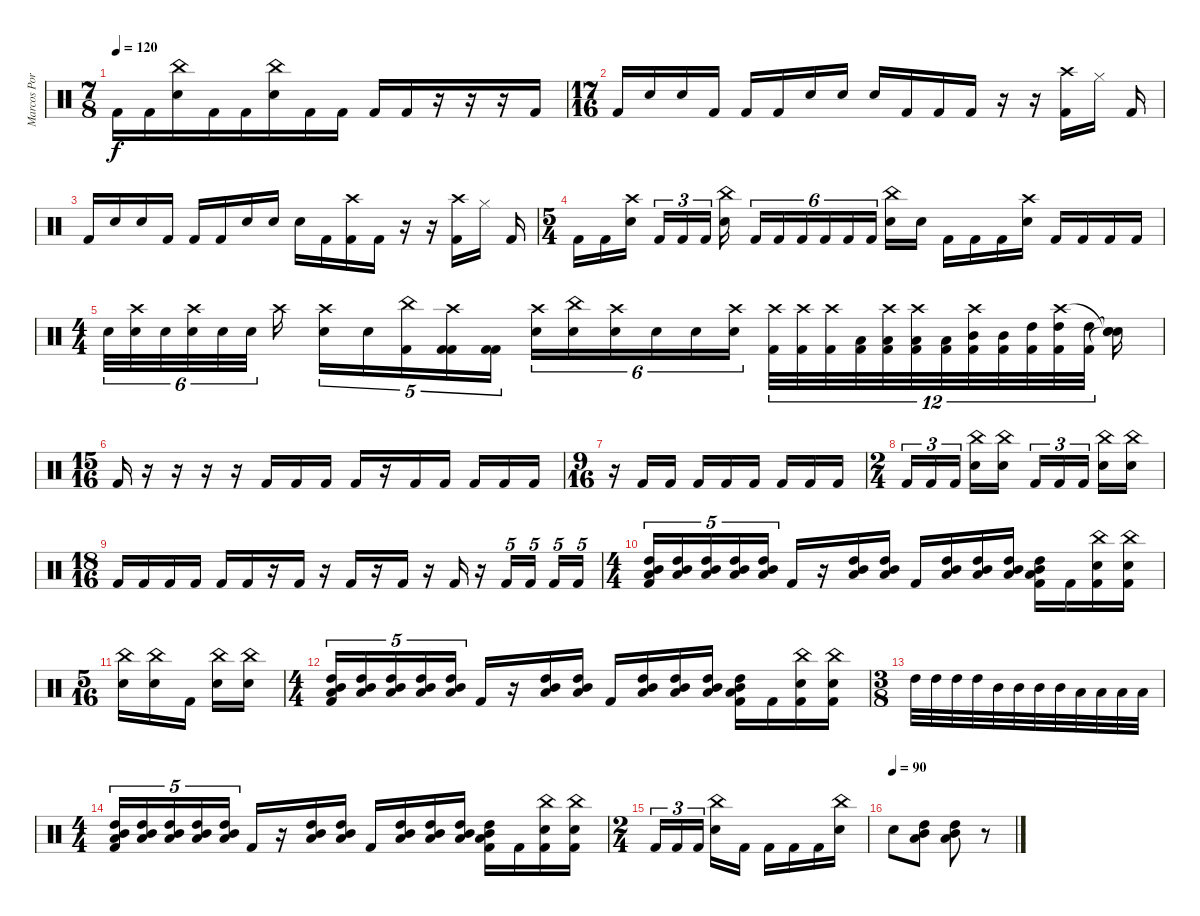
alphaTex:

\track ("Marcos Portinol" "Marcos Por") {instrument percussion}
\staff {score}
\articulation defaults
\ts (7 8)
\tempo 120
\clef neutral
\ks c "Kick (hit) 2".16{dy f} "Kick (hit) 2".16
("Electric Snare (hit)" "China (hit)").16 "Kick (hit) 2".16 "Kick (hit) 2".16 ("Electric Snare (hit)" "China (hit)").16 "Kick (hit) 2".16 "Kick (hit) 2".16 "Kick (hit) 2".16 "Kick (hit) 2".16 r.16 r.16 r.16 "Kick (hit) 2".16 |
\ts (17 16)
"Kick (hit) 2".16 "Electric Snare (hit)".16 "Electric Snare (hit)".16 "Kick (hit) 2".16 "Kick (hit) 2".16 "Kick (hit) 2".16 "Electric Snare (hit)".16 "Electric Snare (hit)".16 "Electric Snare (hit)".16 "Kick (hit) 2".16 "Kick (hit) 2".16 "Kick (hit) 2".16 r.16 r.16 ("Kick (hit) 2" "Crash high (hit)").16 "Hi-Hat (closed)".16 "Kick (hit) 2".16 |
"Kick (hit) 2".16 "Electric Snare (hit)".16 "Electric Snare (hit)".16 "Kick (hit) 2".16 "Kick (hit) 2".16 "Kick (hit) 2".16 "Electric Snare (hit)".16 "Electric Snare (hit)".16 "Electric Snare (hit)".16 "Kick (hit) 2".16 ("Kick (hit) 2" "Crash high (hit)").16 "Kick (hit) 2".16 r.16 r.16 ("Kick (hit) 2" "Crash high (hit)").16 "Hi-Hat (closed)".16 "Kick (hit) 2".16 |
\ts (5 4)
"Kick (hit) 2".16 "Kick (hit) 2".16 ("Electric Snare (hit)" "Crash high (hit)").16 "Kick (hit) 2".16{tu (3 2)} "Kick (hit) 2".16{tu (3 2)} "Kick (hit) 2".16{tu (3 2)} ("Electric Snare (hit)" "China (hit)").16 "Kick (hit) 2".16{tu (6 4)} "Kick (hit) 2".16{tu (6 4)} "Kick (hit) 2".16{tu (6 4)} "Kick (hit) 2".16{tu (6 4)} "Kick (hit) 2".16{tu (6 4)} "Kick (hit) 2".16{tu (6 4)} ("Electric Snare (hit)" "China (hit)").16 "Electric Snare (hit)".16 "Kick (hit) 2".16 "Kick (hit) 2".16 "Kick (hit) 2".16 ("Electric Snare (hit)" "Crash high (hit)").16 "Kick (hit) 2".16 "Kick (hit) 2".16 "Kick (hit) 2".16 "Kick (hit) 2".16 |
\ts (4 4)
"Electric Snare (hit)".32{tu (6 4)} ("Electric Snare (hit)" "Crash high (hit)").32{tu (6 4)} "Electric Snare (hit)".32{tu (6 4)} ("Electric Snare (hit)" "Crash high (hit)").32{tu (6 4)} "Electric Snare (hit)".32{tu (6 4)} "Electric Snare (hit)".32{tu (6 4)} "Crash high (hit)".16 ("Electric Snare (hit)" "Crash high (hit)").16{tu (5 4)} "Electric Snare (hit)".16{tu (5 4)} ("Kick (hit) 2" "China (hit)").16{tu (5 4)} ("Kick (hit) 2" "Kick (hit) 2" "Crash high (hit)").16{tu (5 4)} ("Kick (hit) 2" "Kick (hit) 2").16{tu (5 4)} ("Electric Snare (hit)" "Crash high (hit)").16{tu (6 4)} ("Electric Snare (hit)" "China (hit)").16{tu (6 4)} ("Electric Snare (hit)" "Crash high (hit)").16{tu (6 4)} "Electric Snare (hit)".16{tu (6 4)} "Electric Snare (hit)".16{tu (6 4)} ("Electric Snare (hit)" "Crash high (hit)").16{tu (6 4)} ("Kick (hit) 2" "Crash high (hit)").32{tu (12 8)} ("Kick (hit) 2" "Crash high (hit)").32{tu (12 8)} ("Kick (hit) 2" "Crash high (hit)").32{tu (12 8)} ("Kick (hit) 2" "Low Tom (hit)").32{tu (12 8)} ("Kick (hit) 2" "Low Tom (hit)" "Crash high (hit)").32{tu (12 8)} ("Kick (hit) 2" "Low Tom (hit)" "Crash high (hit)").32{tu (12 8)} ("Kick (hit) 2" "Low Tom (hit)").32{tu (12 8)} ("Kick (hit) 2" "Mid Tom (hit)" "Crash high (hit)").32{tu (12 8)} ("Kick (hit) 2" "Mid Tom (hit)").32{tu (12 8)} ("Kick (hit) 2" "High Tom (hit)").32{tu (12 8)} ("Kick (hit) 2" "High Tom (hit)" "Crash high (hit)").32{tu (12 8)} ("Kick (hit) 2" "High Tom (hit)").32{tu (12 8)} ("Snare (hit)"{t} "Snare (hit)"{t} "Snare (hit)"{t}).16 |
\ts (15 16)
"Kick (hit) 2".16 r.16 r.16 r.16 r.16 "Kick (hit) 2".16 "Kick (hit) 2".16 "Kick (hit) 2".16 "Kick (hit) 2".16 r.16 "Kick (hit) 2".16 "Kick (hit) 2".16 "Kick (hit) 2".16 "Kick (hit) 2".16 "Kick (hit) 2".16 |
\ts (9 16)
r.16 "Kick (hit) 2".16 "Kick (hit) 2".16 "Kick (hit) 2".16 "Kick (hit) 2".16 "Kick (hit) 2".16 "Kick (hit) 2".16 "Kick (hit) 2".16 "Kick (hit) 2".16 |
\ts (2 4)
"Kick (hit) 2".16{tu (3 2)} "Kick (hit) 2".16{tu (3 2)} "Kick (hit) 2".16{tu (3 2)} ("Electric Snare (hit)" "China (hit)").16 ("Electric Snare (hit)" "China (hit)").16 "Kick (hit) 2".16{tu (3 2)} "Kick (hit) 2".16{tu (3 2)} "Kick (hit) 2".16{tu (3 2)} ("Electric Snare (hit)" "China (hit)").16 ("Electric Snare (hit)" "China (hit)").16 |
\ts (18 16)
"Kick (hit) 2".16 "Kick (hit) 2".16 "Kick (hit) 2".16 "Kick (hit) 2".16 "Kick (hit) 2".16 "Kick (hit) 2".16 r.16 "Kick (hit) 2".16 r.16 "Kick (hit) 2".16 r.16 "Kick (hit) 2".16 r.16 "Kick (hit) 2".16 r.16 "Kick (hit) 2".16{tu (5 4)} "Kick (hit) 2".16{tu (5 4)} "Kick (hit) 2".16{tu (5 4)} "Kick (hit) 2".16{tu (5 4)} |
\ts (4 4)
("Kick (hit) 2" "High Tom (hit)" "Low Tom (hit)" "Mid Tom (hit)").16{tu (5 4)} ("High Tom (hit)" "Low Tom (hit)" "Mid Tom (hit)").16{tu (5 4)} ("High Tom (hit)" "Low Tom (hit)" "Mid Tom (hit)").16{tu (5 4)} ("High Tom (hit)" "Low Tom (hit)" "Mid Tom (hit)").16{tu (5 4)} ("High Tom (hit)" "Low Tom (hit)" "Mid Tom (hit)").16{tu (5 4)} "Kick (hit) 2".16 r.16 ("High Tom (hit)" "Low Tom (hit)" "Mid Tom (hit)").16 ("High Tom (hit)" "Low Tom (hit)" "Mid Tom (hit)").16 "Kick (hit) 2".16 ("High Tom (hit)" "Low Tom (hit)" "Mid Tom (hit)").16 ("High Tom (hit)" "Low Tom (hit)" "Mid Tom (hit)").16 ("High Tom (hit)" "Low Tom (hit)" "Mid Tom (hit)").16 ("Kick (hit) 2" "High Tom (hit)" "Low Tom (hit)" "Mid Tom (hit)").16 "Kick (hit) 2".16 ("Kick (hit) 2" "Electric Snare (hit)" "China (hit)").16 ("Kick (hit) 2" "Electric Snare (hit)" "China (hit)").16 |
\ts (5 16)
("Electric Snare (hit)" "China (hit)").16 ("Electric Snare (hit)" "China (hit)").16 "Kick (hit) 2".16 ("Electric Snare (hit)" "China (hit)").16 ("Electric Snare (hit)" "China (hit)").16 |
\ts (4 4)
("Kick (hit) 2" "High Tom (hit)" "Low Tom (hit)" "Mid Tom (hit)").16{tu (5 4)} ("High Tom (hit)" "Low Tom (hit)" "Mid Tom (hit)").16{tu (5 4)} ("High Tom (hit)" "Low Tom (hit)" "Mid Tom (hit)").16{tu (5 4)} ("High Tom (hit)" "Low Tom (hit)" "Mid Tom (hit)").16{tu (5 4)} ("High Tom (hit)" "Low Tom (hit)" "Mid Tom (hit)").16{tu (5 4)} "Kick (hit) 2".16 r.16 ("High Tom (hit)" "Low Tom (hit)" "Mid Tom (hit)").16 ("High Tom (hit)" "Low Tom (hit)" "Mid Tom (hit)").16 "Kick (hit) 2".16 ("High Tom (hit)" "Low Tom (hit)" "Mid Tom (hit)").16 ("High Tom (hit)" "Low Tom (hit)" "Mid Tom (hit)").16 ("High Tom (hit)" "Low Tom (hit)" "Mid Tom (hit)").16 ("Kick (hit) 2" "High Tom (hit)" "Low Tom (hit)" "Mid Tom (hit)").16 "Kick (hit) 2".16 ("Kick (hit) 2" "Electric Snare (hit)" "China (hit)").16 ("Kick (hit) 2" "Electric Snare (hit)" "China (hit)").16 |
\ts (3 8)
"High Tom (hit)".32 "High Tom (hit)".32 "High Tom (hit)".32 "High Tom (hit)".32 "Mid Tom (hit)".32 "Mid Tom (hit)".32 "Mid Tom (hit)".32 "Mid Tom (hit)".32 "Low Tom (hit)".32 "Low Tom (hit)".32 "Low Tom (hit)".32 "Low Tom (hit)".32 |
\ts (4 4)
("Kick (hit) 2" "High Tom (hit)" "Low Tom (hit)" "Mid Tom (hit)").16{tu (5 4)} ("High Tom (hit)" "Low Tom (hit)" "Mid Tom (hit)").16{tu (5 4)} ("High Tom (hit)" "Low Tom (hit)" "Mid Tom (hit)").16{tu (5 4)} ("High Tom (hit)" "Low Tom (hit)" "Mid Tom (hit)").16{tu (5 4)} ("High Tom (hit)" "Low Tom (hit)" "Mid Tom (hit)").16{tu (5 4)} "Kick (hit) 2".16 r.16 ("High Tom (hit)" "Low Tom (hit)" "Mid Tom (hit)").16 ("High Tom (hit)" "Low Tom (hit)" "Mid Tom (hit)").16 "Kick (hit) 2".16 ("High Tom (hit)" "Low Tom (hit)" "Mid Tom (hit)").16 ("High Tom (hit)" "Low Tom (hit)" "Mid Tom (hit)").16 ("High Tom (hit)" "Low Tom (hit)" "Mid Tom (hit)").16 ("Kick (hit) 2" "High Tom (hit)" "Low Tom (hit)" "Mid Tom (hit)").16 "Kick (hit) 2".16 ("Kick (hit) 2" "Electric Snare (hit)" "China (hit)").16 ("Kick (hit) 2" "Electric Snare (hit)" "China (hit)").16 |
\ts (2 4)
"Kick (hit) 2".16{tu (3 2)} "Kick (hit) 2".16{tu (3 2)} "Kick (hit) 2".16{tu (3 2)} ("Electric Snare (hit)" "China (hit)").16 "Kick (hit) 2".16 "Kick (hit) 2".16 "Kick (hit) 2".16 "Kick (hit) 2".16 ("Electric Snare (hit)" "China (hit)").16 |
\tempo (90)
"Electric Snare (hit)".8 ("Low Tom (hit)" "High Tom (hit)" "Mid Tom (hit)").8 ("Low Tom (hit)" "High Tom (hit)" "Mid Tom (hit)").8 r.8
